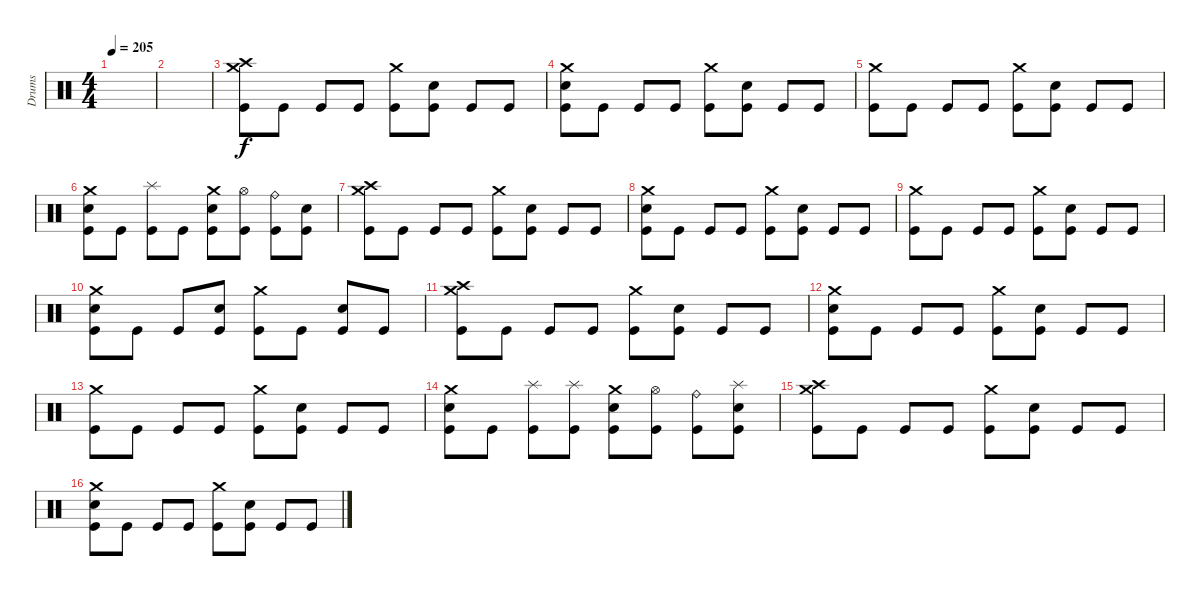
\track ("Drums" "Drums") {instrument percussion}
\staff {score}
\articulation defaults
\ts (4 4)
\tempo 205
\clef neutral
\ks c
|
|
("Crash high (hit)" "Crash medium (hit)" "Kick (hit)").8 "Kick (hit)".8 "Kick (hit)".8 "Kick (hit)".8 ("Crash medium (hit)" "Kick (hit)").8 ("Electric Snare (hit)" "Kick (hit)").8 "Kick (hit)".8 "Kick (hit)".8 |
("Electric Snare (hit)" "Crash medium (hit)" "Kick (hit)").8 "Kick (hit)".8 "Kick (hit)".8 "Kick (hit)".8 ("Crash medium (hit)" "Kick (hit)").8 ("Electric Snare (hit)" "Kick (hit)").8 "Kick (hit)".8 "Kick (hit)".8 |
("Crash medium (hit)" "Kick (hit)").8 "Kick (hit)".8 "Kick (hit)".8 "Kick (hit)".8 ("Crash medium (hit)" "Kick (hit)").8 ("Electric Snare (hit)" "Kick (hit)").8 "Kick (hit)".8 "Kick (hit)".8 |
("Electric Snare (hit)" "Crash medium (hit)" "Kick (hit)").8 "Kick (hit)".8 ("Splash (hit)" "Kick (hit)").8 "Kick (hit)".8 ("Electric Snare (hit)" "Crash medium (hit)" "Kick (hit)").8 ("Hi-Hat (open)" "Kick (hit)").8 ("Ride (bell)" "Kick (hit)").8 ("Electric Snare (hit)" "Kick (hit)").8 |
("Crash high (hit)" "Crash medium (hit)" "Kick (hit)").8 "Kick (hit)".8 "Kick (hit)".8 "Kick (hit)".8 ("Crash medium (hit)" "Kick (hit)").8 ("Electric Snare (hit)" "Kick (hit)").8 "Kick (hit)".8 "Kick (hit)".8 |
("Electric Snare (hit)" "Crash medium (hit)" "Kick (hit)").8 "Kick (hit)".8 "Kick (hit)".8 "Kick (hit)".8 ("Crash medium (hit)" "Kick (hit)").8 ("Electric Snare (hit)" "Kick (hit)").8 "Kick (hit)".8 "Kick (hit)".8 |
("Crash medium (hit)" "Kick (hit)").8 "Kick (hit)".8 "Kick (hit)".8 "Kick (hit)".8 ("Crash medium (hit)" "Kick (hit)").8 ("Electric Snare (hit)" "Kick (hit)").8 "Kick (hit)".8 "Kick (hit)".8 |
("Electric Snare (hit)" "Crash medium (hit)" "Kick (hit)").8 "Kick (hit)".8 "Kick (hit)".8 ("Electric Snare (hit)" "Kick (hit)").8 ("Crash medium (hit)" "Kick (hit)").8 "Kick (hit)".8 ("Electric Snare (hit)" "Kick (hit)").8 "Kick (hit)".8 |
("Crash high (hit)" "Crash medium (hit)" "Kick (hit)").8 "Kick (hit)".8 "Kick (hit)".8 "Kick (hit)".8 ("Crash medium (hit)" "Kick (hit)").8 ("Electric Snare (hit)" "Kick (hit)").8 "Kick (hit)".8 "Kick (hit)".8 |
("Electric Snare (hit)" "Crash medium (hit)" "Kick (hit)").8 "Kick (hit)".8 "Kick (hit)".8 "Kick (hit)".8 ("Crash medium (hit)" "Kick (hit)").8 ("Electric Snare (hit)" "Kick (hit)").8 "Kick (hit)".8 "Kick (hit)".8 |
("Crash medium (hit)" "Kick (hit)").8 "Kick (hit)".8 "Kick (hit)".8 "Kick (hit)".8 ("Crash medium (hit)" "Kick (hit)").8 ("Electric Snare (hit)" "Kick (hit)").8 "Kick (hit)".8 "Kick (hit)".8 |
("Electric Snare (hit)" "Crash medium (hit)" "Kick (hit)").8 "Kick (hit)".8 ("Splash (hit)" "Kick (hit)").8 ("Splash (hit)" "Kick (hit)").8 ("Electric Snare (hit)" "Crash medium (hit)" "Kick (hit)").8 ("Hi-Hat (open)" "Kick (hit)").8 ("Ride (bell)" "Kick (hit)").8 ("Electric Snare (hit)" "Splash (hit)" "Kick (hit)").8 |
("Crash high (hit)" "Crash medium (hit)" "Kick (hit)").8 "Kick (hit)".8 "Kick (hit)".8 "Kick (hit)".8 ("Crash medium (hit)" "Kick (hit)").8 ("Electric Snare (hit)" "Kick (hit)").8 "Kick (hit)".8 "Kick (hit)".8 |
("Electric Snare (hit)" "Crash medium (hit)" "Kick (hit)").8 "Kick (hit)".8 "Kick (hit)".8 "Kick (hit)".8 ("Crash medium (hit)" "Kick (hit)").8 ("Electric Snare (hit)" "Kick (hit)").8 "Kick (hit)".8 "Kick (hit)".8
